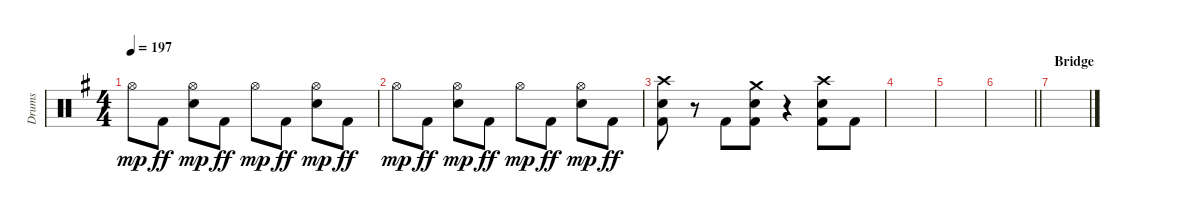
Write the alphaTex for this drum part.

\track ("Drums" "Drums") {instrument percussion}
\staff {score}
\articulation defaults
\ts (4 4)
\tempo 197
\clef neutral
\ks g "Hi-Hat (open)".8{dy mp} "Kick (hit) 2".8{dy ff}
("Hi-Hat (open)" "Snare (hit) 2").8{dy mp} "Kick (hit) 2".8{dy ff} "Hi-Hat (open)".8{dy mp} "Kick (hit) 2".8{dy ff} ("Hi-Hat (open)" "Snare (hit) 2").8{dy mp} "Kick (hit) 2".8{dy ff} |
"Hi-Hat (open)".8{dy mp} "Kick (hit) 2".8{dy ff} ("Hi-Hat (open)" "Snare (hit) 2").8{dy mp} "Kick (hit) 2".8{dy ff} "Hi-Hat (open)".8{dy mp} "Kick (hit) 2".8{dy ff} ("Hi-Hat (open)" "Snare (hit) 2").8{dy mp} "Kick (hit) 2".8{dy ff} |
("Crash high (hit)" "Snare (hit) 2" "Kick (hit) 2").8 r.8 "Kick (hit) 2".8 ("Crash medium (hit)" "Snare (hit) 2" "Kick (hit) 2").8 r.4 ("Crash high (hit)" "Snare (hit) 2" "Kick (hit) 2").8 "Kick (hit) 2".8 |
|
|
\barLineRight lightlight
|
\section ("" "Bridge")
